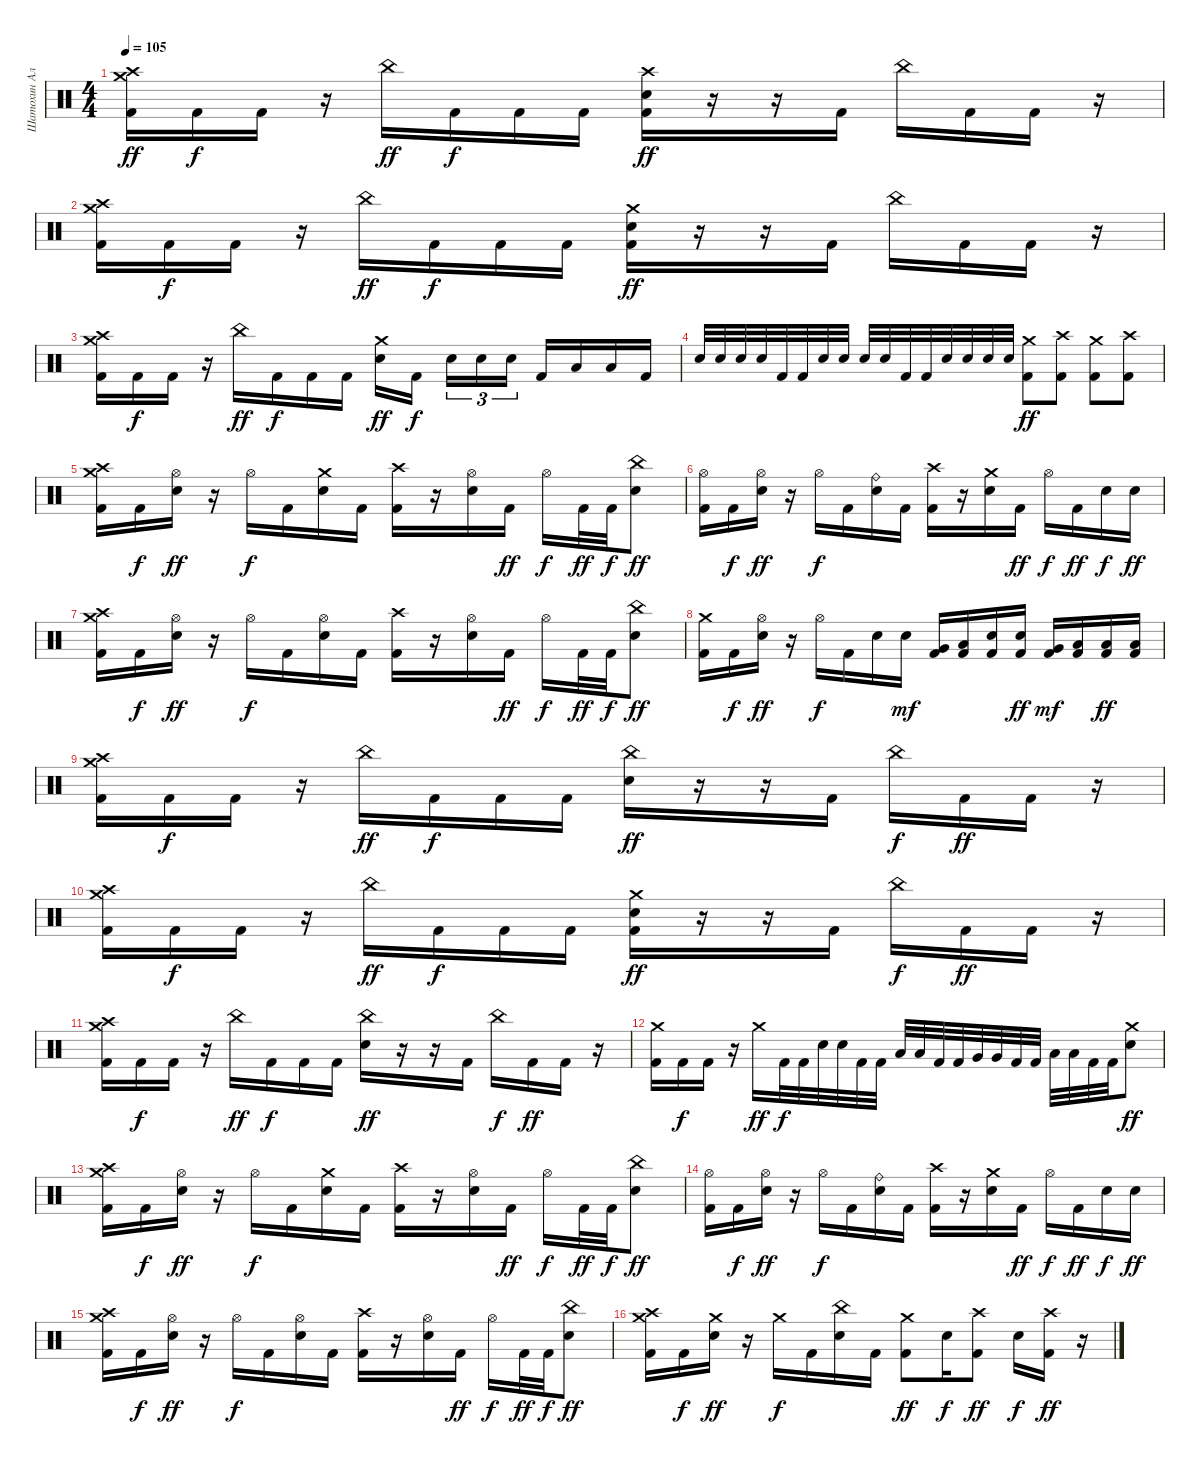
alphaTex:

\track ("Шатохин Алексей" "Шатохин Ал") {instrument percussion}
\staff {score}
\articulation defaults
\ts (4 4)
\tempo 105
\clef neutral
\ks c
("Crash high (hit)" "Crash medium (hit)" "Kick (hit) 2").16{dy ff} "Kick (hit) 2".16{dy f} "Kick (hit) 2".16 r.16 "China (hit)".16{dy ff} "Kick (hit) 2".16{dy f} "Kick (hit) 2".16 "Kick (hit) 2".16 ("Crash high (hit)" "Electric Snare (hit)" "Kick (hit) 2").16{dy ff} r.16 r.16 "Kick (hit) 2".16 "China (hit)".16 "Kick (hit) 2".16 "Kick (hit) 2".16 r.16 |
("Crash high (hit)" "Crash medium (hit)" "Kick (hit) 2").16 "Kick (hit) 2".16{dy f} "Kick (hit) 2".16 r.16 "China (hit)".16{dy ff} "Kick (hit) 2".16{dy f} "Kick (hit) 2".16 "Kick (hit) 2".16 ("Crash medium (hit)" "Electric Snare (hit)" "Kick (hit) 2").16{dy ff} r.16 r.16 "Kick (hit) 2".16 "China (hit)".16 "Kick (hit) 2".16 "Kick (hit) 2".16 r.16 |
("Crash high (hit)" "Crash medium (hit)" "Kick (hit) 2").16 "Kick (hit) 2".16{dy f} "Kick (hit) 2".16 r.16 "China (hit)".16{dy ff} "Kick (hit) 2".16{dy f} "Kick (hit) 2".16 "Kick (hit) 2".16 ("Crash medium (hit)" "Electric Snare (hit)").16{dy ff} "Kick (hit) 2".16{dy f beam splitsecondary} "Electric Snare (hit)".16{tu (3 2)} "Electric Snare (hit)".16{tu (3 2)} "Electric Snare (hit)".16{tu (3 2)} "Kick (hit) 2".16 "Low Tom (hit)".16 "Low Tom (hit)".16 "Kick (hit) 2".16 |
"Electric Snare (hit)".32 "Electric Snare (hit)".32 "Electric Snare (hit)".32 "Electric Snare (hit)".32 "Kick (hit) 2".32 "Kick (hit) 2".32 "Electric Snare (hit)".32 "Electric Snare (hit)".32 "Electric Snare (hit)".32 "Electric Snare (hit)".32 "Kick (hit) 2".32 "Kick (hit) 2".32 "Electric Snare (hit)".32 "Electric Snare (hit)".32 "Electric Snare (hit)".32 "Electric Snare (hit)".32 ("Crash medium (hit)" "Kick (hit) 2").8{dy ff} ("Crash high (hit)" "Kick (hit) 2").8 ("Crash medium (hit)" "Kick (hit) 2").8 ("Crash high (hit)" "Kick (hit) 2").8 |
("Crash high (hit)" "Crash medium (hit)" "Kick (hit) 2").16 "Kick (hit) 2".16{dy f} ("Hi-Hat (open)" "Electric Snare (hit)").16{dy ff} r.16 "Hi-Hat (open)".16{dy f} "Kick (hit) 2".16 ("Crash medium (hit)" "Electric Snare (hit)").16 "Kick (hit) 2".16 ("Crash high (hit)" "Kick (hit) 2").16 r.16 ("Hi-Hat (open)" "Electric Snare (hit)").16 "Kick (hit) 2".16{dy ff} "Hi-Hat (open)".16{dy f} "Kick (hit) 2".32{dy ff} "Kick (hit) 2".32{dy f} ("China (hit)" "Electric Snare (hit)").8{dy ff} |
("Hi-Hat (open)" "Kick (hit) 2").16 "Kick (hit) 2".16{dy f} ("Hi-Hat (open)" "Electric Snare (hit)").16{dy ff} r.16 "Hi-Hat (open)".16{dy f} "Kick (hit) 2".16 ("Ride (bell)" "Electric Snare (hit)").16 "Kick (hit) 2".16 ("Crash high (hit)" "Kick (hit) 2").16 r.16 ("Crash medium (hit)" "Electric Snare (hit)").16 "Kick (hit) 2".16{dy ff} "Hi-Hat (open)".16{dy f} "Kick (hit) 2".16{dy ff} "Electric Snare (hit)".16{dy f} "Electric Snare (hit)".16{dy ff} |
("Crash high (hit)" "Crash medium (hit)" "Kick (hit) 2").16 "Kick (hit) 2".16{dy f} ("Hi-Hat (open)" "Electric Snare (hit)").16{dy ff} r.16 "Hi-Hat (open)".16{dy f} "Kick (hit) 2".16 ("Hi-Hat (open)" "Electric Snare (hit)").16 "Kick (hit) 2".16 ("Crash high (hit)" "Kick (hit) 2").16 r.16 ("Hi-Hat (open)" "Electric Snare (hit)").16 "Kick (hit) 2".16{dy ff} "Hi-Hat (open)".16{dy f} "Kick (hit) 2".32{dy ff} "Kick (hit) 2".32{dy f} ("China (hit)" "Electric Snare (hit)").8{dy ff} |
("Crash medium (hit)" "Kick (hit) 2").16 "Kick (hit) 2".16{dy f} ("Hi-Hat (open)" "Electric Snare (hit)").16{dy ff} r.16 "Hi-Hat (open)".16{dy f} "Kick (hit) 2".16 "Electric Snare (hit)".16 "Electric Snare (hit)".16{dy mf} ("Very Low Tom (hit)" "Kick (hit) 2").16 ("Low Tom (hit)" "Kick (hit) 2").16 ("Electric Snare (hit)" "Kick (hit) 2").16 ("Electric Snare (hit)" "Kick (hit) 2").16{dy ff} ("Very Low Tom (hit)" "Kick (hit) 2").16{dy mf} ("Low Tom (hit)" "Kick (hit) 2").16 ("Low Floor Tom (hit)" "Kick (hit) 2").16{dy ff} ("Low Floor Tom (hit)" "Kick (hit) 2").16 |
("Crash high (hit)" "Crash medium (hit)" "Kick (hit) 2").16 "Kick (hit) 2".16{dy f} "Kick (hit) 2".16 r.16 "China (hit)".16{dy ff} "Kick (hit) 2".16{dy f} "Kick (hit) 2".16 "Kick (hit) 2".16 ("China (hit)" "Electric Snare (hit)").16{dy ff} r.16 r.16 "Kick (hit) 2".16 "China (hit)".16{dy f} "Kick (hit) 2".16{dy ff} "Kick (hit) 2".16 r.16 |
("Crash high (hit)" "Crash medium (hit)" "Kick (hit) 2").16 "Kick (hit) 2".16{dy f} "Kick (hit) 2".16 r.16 "China (hit)".16{dy ff} "Kick (hit) 2".16{dy f} "Kick (hit) 2".16 "Kick (hit) 2".16 ("Crash medium (hit)" "Electric Snare (hit)" "Kick (hit) 2").16{dy ff} r.16 r.16 "Kick (hit) 2".16 "China (hit)".16{dy f} "Kick (hit) 2".16{dy ff} "Kick (hit) 2".16 r.16 |
("Crash high (hit)" "Crash medium (hit)" "Kick (hit) 2").16 "Kick (hit) 2".16{dy f} "Kick (hit) 2".16 r.16 "China (hit)".16{dy ff} "Kick (hit) 2".16{dy f} "Kick (hit) 2".16 "Kick (hit) 2".16 ("China (hit)" "Electric Snare (hit)").16{dy ff} r.16 r.16 "Kick (hit) 2".16 "China (hit)".16{dy f} "Kick (hit) 2".16{dy ff} "Kick (hit) 2".16 r.16 |
("Crash medium (hit)" "Kick (hit) 2").16 "Kick (hit) 2".16{dy f} "Kick (hit) 2".16 r.16 "Crash medium (hit)".16{dy ff} "Kick (hit) 2".32{dy f} "Kick (hit) 2".32 "Electric Snare (hit)".32 "Electric Snare (hit)".32 "Kick (hit) 2".32 "Kick (hit) 2".32 "Low Tom (hit)".32 "Low Tom (hit)".32 "Kick (hit) 2".32 "Kick (hit) 2".32 "Very Low Tom (hit)".32 "Very Low Tom (hit)".32 "Kick (hit) 2".32 "Kick (hit) 2".32 "Low Floor Tom (hit)".32 "Low Floor Tom (hit)".32 "Kick (hit) 2".32 "Kick (hit) 2".32 ("Crash medium (hit)" "Electric Snare (hit)").8{dy ff} |
("Crash high (hit)" "Crash medium (hit)" "Kick (hit) 2").16 "Kick (hit) 2".16{dy f} ("Hi-Hat (open)" "Electric Snare (hit)").16{dy ff} r.16 "Hi-Hat (open)".16{dy f} "Kick (hit) 2".16 ("Crash medium (hit)" "Electric Snare (hit)").16 "Kick (hit) 2".16 ("Crash high (hit)" "Kick (hit) 2").16 r.16 ("Hi-Hat (open)" "Electric Snare (hit)").16 "Kick (hit) 2".16{dy ff} "Hi-Hat (open)".16{dy f} "Kick (hit) 2".32{dy ff} "Kick (hit) 2".32{dy f} ("China (hit)" "Electric Snare (hit)").8{dy ff} |
("Hi-Hat (open)" "Kick (hit) 2").16 "Kick (hit) 2".16{dy f} ("Hi-Hat (open)" "Electric Snare (hit)").16{dy ff} r.16 "Hi-Hat (open)".16{dy f} "Kick (hit) 2".16 ("Ride (bell)" "Electric Snare (hit)").16 "Kick (hit) 2".16 ("Crash high (hit)" "Kick (hit) 2").16 r.16 ("Crash medium (hit)" "Electric Snare (hit)").16 "Kick (hit) 2".16{dy ff} "Hi-Hat (open)".16{dy f} "Kick (hit) 2".16{dy ff} "Electric Snare (hit)".16{dy f} "Electric Snare (hit)".16{dy ff} |
("Crash high (hit)" "Crash medium (hit)" "Kick (hit) 2").16 "Kick (hit) 2".16{dy f} ("Hi-Hat (open)" "Electric Snare (hit)").16{dy ff} r.16 "Hi-Hat (open)".16{dy f} "Kick (hit) 2".16 ("Hi-Hat (open)" "Electric Snare (hit)").16 "Kick (hit) 2".16 ("Crash high (hit)" "Kick (hit) 2").16 r.16 ("Hi-Hat (open)" "Electric Snare (hit)").16 "Kick (hit) 2".16{dy ff} "Hi-Hat (open)".16{dy f} "Kick (hit) 2".32{dy ff} "Kick (hit) 2".32{dy f} ("China (hit)" "Electric Snare (hit)").8{dy ff} |
("Crash medium (hit)" "Crash high (hit)" "Kick (hit) 2").16 "Kick (hit) 2".16{dy f} ("Crash medium (hit)" "Electric Snare (hit)").16{dy ff} r.16 "Crash medium (hit)".16{dy f} "Kick (hit) 2".16 ("China (hit)" "Electric Snare (hit)").16 "Kick (hit) 2".16 ("Crash medium (hit)" "Kick (hit) 2").8{dy ff} "Electric Snare (hit)".16{dy f} ("Crash high (hit)" "Kick (hit) 2").8{dy ff} "Electric Snare (hit)".16{dy f} ("Crash high (hit)" "Kick (hit) 2").16{dy ff} r.16
